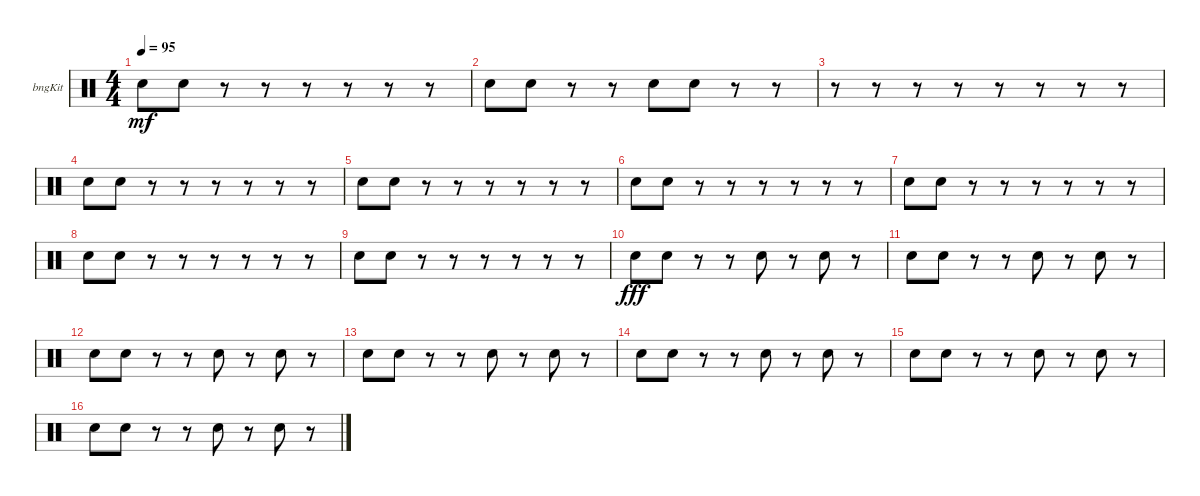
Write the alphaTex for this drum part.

\bracketExtendMode groupsimilarinstruments
\firstSystemTrackNameOrientation horizontal
\otherSystemsTrackNameOrientation horizontal
\track ("Bongos" "bngKit") {instrument percussion}
\staff {score}
\articulation defaults
\ts (4 4)
\tempo 95
\clef neutral
\ks c "Snare (hit) 2".8{dy mf} "Snare (hit) 2".8
r.8 r.8 r.8 r.8 r.8 r.8 |
"Snare (hit) 2".8 "Snare (hit) 2".8 r.8 r.8 "Snare (hit) 2".8 "Snare (hit) 2".8 r.8 r.8 |
r.8 r.8 r.8 r.8 r.8 r.8 r.8 r.8 |
"Snare (hit) 2".8 "Snare (hit) 2".8 r.8 r.8 r.8 r.8 r.8 r.8 |
"Snare (hit) 2".8 "Snare (hit) 2".8 r.8 r.8 r.8 r.8 r.8 r.8 |
"Snare (hit) 2".8 "Snare (hit) 2".8 r.8 r.8 r.8 r.8 r.8 r.8 |
"Snare (hit) 2".8 "Snare (hit) 2".8 r.8 r.8 r.8 r.8 r.8 r.8 |
"Snare (hit) 2".8 "Snare (hit) 2".8 r.8 r.8 r.8 r.8 r.8 r.8 |
"Snare (hit) 2".8 "Snare (hit) 2".8 r.8 r.8 r.8 r.8 r.8 r.8 |
"Snare (hit) 2".8{dy fff} "Snare (hit) 2".8 r.8 r.8 "Snare (hit) 2".8 r.8 "Snare (hit) 2".8 r.8 |
"Snare (hit) 2".8 "Snare (hit) 2".8 r.8 r.8 "Snare (hit) 2".8 r.8 "Snare (hit) 2".8 r.8 |
"Snare (hit) 2".8 "Snare (hit) 2".8 r.8 r.8 "Snare (hit) 2".8 r.8 "Snare (hit) 2".8 r.8 |
"Snare (hit) 2".8 "Snare (hit) 2".8 r.8 r.8 "Snare (hit) 2".8 r.8 "Snare (hit) 2".8 r.8 |
"Snare (hit) 2".8 "Snare (hit) 2".8 r.8 r.8 "Snare (hit) 2".8 r.8 "Snare (hit) 2".8 r.8 |
"Snare (hit) 2".8 "Snare (hit) 2".8 r.8 r.8 "Snare (hit) 2".8 r.8 "Snare (hit) 2".8 r.8 |
"Snare (hit) 2".8 "Snare (hit) 2".8 r.8 r.8 "Snare (hit) 2".8 r.8 "Snare (hit) 2".8 r.8
